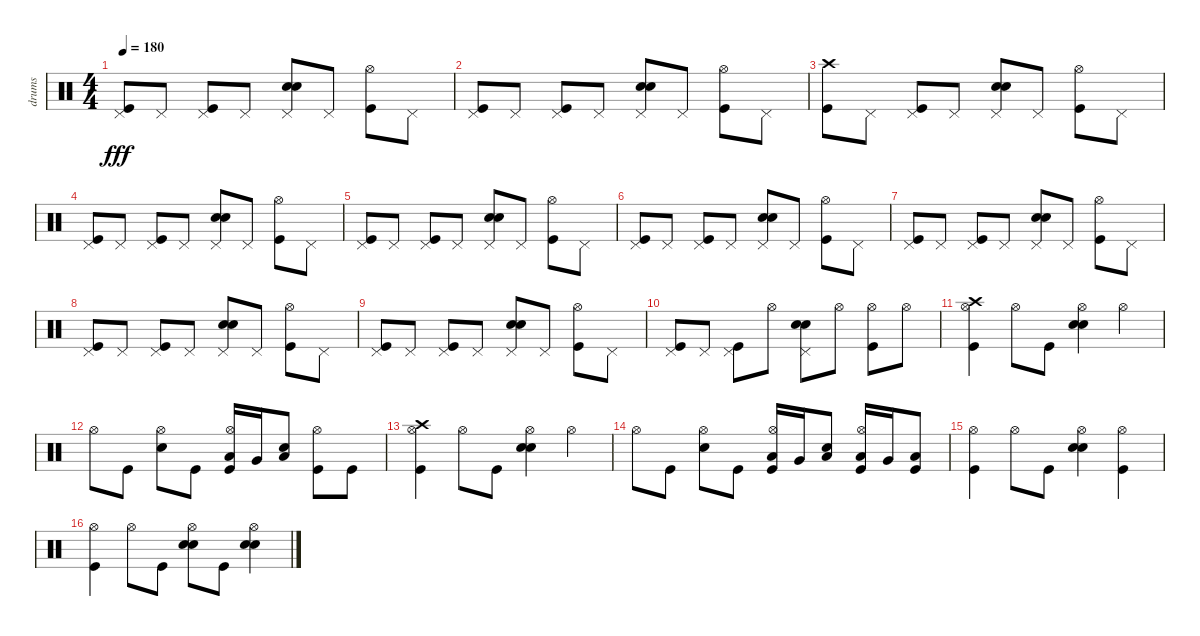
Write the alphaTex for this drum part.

\track ("drums" "drums") {instrument percussion}
\staff {score}
\articulation defaults
\ts (4 4)
\tempo 180
\clef neutral
\ks c
("Pedal Hi-Hat (hit)" "Kick (hit)").8{dy fff} "Pedal Hi-Hat (hit)".8 ("Pedal Hi-Hat (hit)" "Kick (hit)").8 "Pedal Hi-Hat (hit)".8 ("Pedal Hi-Hat (hit)" "Electric Snare (hit)" "Snare (hit) 2").8 "Pedal Hi-Hat (hit)".8 ("Hi-Hat (open)" "Kick (hit)").8 "Pedal Hi-Hat (hit)".8 |
("Kick (hit)" "Pedal Hi-Hat (hit)").8 "Pedal Hi-Hat (hit)".8 ("Kick (hit)" "Pedal Hi-Hat (hit)").8 "Pedal Hi-Hat (hit)".8 ("Snare (hit) 2" "Electric Snare (hit)" "Pedal Hi-Hat (hit)").8 "Pedal Hi-Hat (hit)".8 ("Hi-Hat (open)" "Kick (hit)").8 "Pedal Hi-Hat (hit)".8 |
("Kick (hit)" "Crash high (hit)").8 "Pedal Hi-Hat (hit)".8 ("Pedal Hi-Hat (hit)" "Kick (hit)").8 "Pedal Hi-Hat (hit)".8 ("Pedal Hi-Hat (hit)" "Electric Snare (hit)" "Snare (hit) 2").8 "Pedal Hi-Hat (hit)".8 ("Hi-Hat (open)" "Kick (hit)").8 "Pedal Hi-Hat (hit)".8 |
("Kick (hit)" "Pedal Hi-Hat (hit)").8 "Pedal Hi-Hat (hit)".8 ("Kick (hit)" "Pedal Hi-Hat (hit)").8 "Pedal Hi-Hat (hit)".8 ("Snare (hit) 2" "Electric Snare (hit)" "Pedal Hi-Hat (hit)").8 "Pedal Hi-Hat (hit)".8 ("Hi-Hat (open)" "Kick (hit)").8 "Pedal Hi-Hat (hit)".8 |
("Pedal Hi-Hat (hit)" "Kick (hit)").8 "Pedal Hi-Hat (hit)".8 ("Pedal Hi-Hat (hit)" "Kick (hit)").8 "Pedal Hi-Hat (hit)".8 ("Pedal Hi-Hat (hit)" "Electric Snare (hit)" "Snare (hit) 2").8 "Pedal Hi-Hat (hit)".8 ("Hi-Hat (open)" "Kick (hit)").8 "Pedal Hi-Hat (hit)".8 |
("Kick (hit)" "Pedal Hi-Hat (hit)").8 "Pedal Hi-Hat (hit)".8 ("Kick (hit)" "Pedal Hi-Hat (hit)").8 "Pedal Hi-Hat (hit)".8 ("Snare (hit) 2" "Electric Snare (hit)" "Pedal Hi-Hat (hit)").8 "Pedal Hi-Hat (hit)".8 ("Hi-Hat (open)" "Kick (hit)").8 "Pedal Hi-Hat (hit)".8 |
("Pedal Hi-Hat (hit)" "Kick (hit)").8 "Pedal Hi-Hat (hit)".8 ("Pedal Hi-Hat (hit)" "Kick (hit)").8 "Pedal Hi-Hat (hit)".8 ("Pedal Hi-Hat (hit)" "Electric Snare (hit)" "Snare (hit) 2").8 "Pedal Hi-Hat (hit)".8 ("Hi-Hat (open)" "Kick (hit)").8 "Pedal Hi-Hat (hit)".8 |
("Kick (hit)" "Pedal Hi-Hat (hit)").8 "Pedal Hi-Hat (hit)".8 ("Kick (hit)" "Pedal Hi-Hat (hit)").8 "Pedal Hi-Hat (hit)".8 ("Snare (hit) 2" "Electric Snare (hit)" "Pedal Hi-Hat (hit)").8 "Pedal Hi-Hat (hit)".8 ("Hi-Hat (open)" "Kick (hit)").8 "Pedal Hi-Hat (hit)".8 |
("Pedal Hi-Hat (hit)" "Kick (hit)").8 "Pedal Hi-Hat (hit)".8 ("Pedal Hi-Hat (hit)" "Kick (hit)").8 "Pedal Hi-Hat (hit)".8 ("Pedal Hi-Hat (hit)" "Electric Snare (hit)" "Snare (hit) 2").8 "Pedal Hi-Hat (hit)".8 ("Hi-Hat (open)" "Kick (hit)").8 "Pedal Hi-Hat (hit)".8 |
("Kick (hit)" "Pedal Hi-Hat (hit)").8 "Pedal Hi-Hat (hit)".8 ("Kick (hit)" "Pedal Hi-Hat (hit)").8 "Hi-Hat (open)".8 ("Snare (hit) 2" "Electric Snare (hit)" "Pedal Hi-Hat (hit)").8 "Hi-Hat (open)".8 ("Hi-Hat (open)" "Kick (hit)").8 "Hi-Hat (open)".8 |
("Kick (hit)" "Hi-Hat (open)" "Crash high (hit)").4 "Hi-Hat (open)".8 "Kick (hit)".8 ("Snare (hit) 2" "Electric Snare (hit)" "Hi-Hat (open)").4 "Hi-Hat (open)".4 |
"Hi-Hat (open)".8 "Kick (hit)".8 ("Snare (hit) 2" "Hi-Hat (open)").8 "Kick (hit)".8 ("Kick (hit)" "Hi-Hat (open)" "Low Tom (hit)").16 "Very Low Tom (hit)".16 ("Snare (hit) 2" "Low Floor Tom (hit)").8 ("Kick (hit)" "Hi-Hat (open)").8 "Kick (hit)".8 |
("Crash high (hit)" "Hi-Hat (open)" "Kick (hit)").4 "Hi-Hat (open)".8 "Kick (hit)".8 ("Snare (hit) 2" "Electric Snare (hit)" "Hi-Hat (open)").4 "Hi-Hat (open)".4 |
"Hi-Hat (open)".8 "Kick (hit)".8 ("Snare (hit) 2" "Hi-Hat (open)").8 "Kick (hit)".8 ("Kick (hit)" "Hi-Hat (open)" "Low Tom (hit)").16 "Very Low Tom (hit)".16 ("Snare (hit) 2" "Low Floor Tom (hit)").8 ("Kick (hit)" "Hi-Hat (open)" "Low Floor Tom (hit)").16 "Very Low Tom (hit)".16 ("Kick (hit)" "Low Floor Tom (hit)").8 |
("Kick (hit)" "Hi-Hat (open)").4 "Hi-Hat (open)".8 "Kick (hit)".8 ("Snare (hit) 2" "Electric Snare (hit)" "Hi-Hat (open)").4 ("Hi-Hat (open)" "Kick (hit)").4 |
("Hi-Hat (open)" "Kick (hit)").4 "Hi-Hat (open)".8 "Kick (hit)".8 ("Hi-Hat (open)" "Snare (hit) 2" "Electric Snare (hit)").8 "Kick (hit)".8 ("Hi-Hat (open)" "Electric Snare (hit)" "Snare (hit) 2").4
